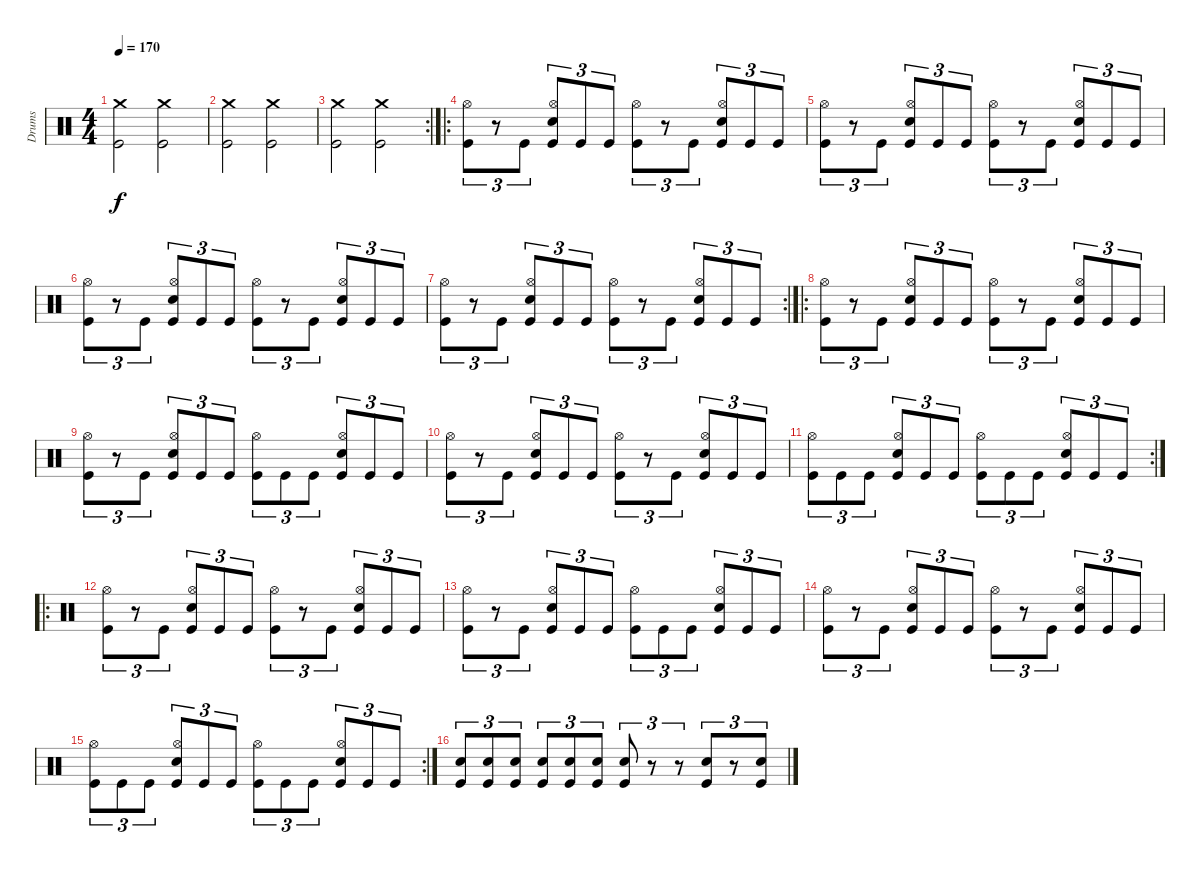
\track ("Drums" "Drums") {instrument percussion}
\staff {score}
\articulation defaults
\ts (4 4)
\tempo 170
\clef neutral
\ks c
("Crash medium (hit)" "Kick (hit)").2{dy f} ("Crash medium (hit)" "Kick (hit)").2 |
("Crash medium (hit)" "Kick (hit)").2 ("Crash medium (hit)" "Kick (hit)").2 |
\rc 2
("Crash medium (hit)" "Kick (hit)").2 ("Crash medium (hit)" "Kick (hit)").2 |
\ro
("Hi-Hat (open)" "Kick (hit)").8{tu (3 2)} r.8{tu (3 2)} "Kick (hit)".8{tu (3 2)} ("Hi-Hat (open)" "Snare (hit) 2" "Kick (hit)").8{tu (3 2)} "Kick (hit)".8{tu (3 2)} "Kick (hit)".8{tu (3 2)} ("Hi-Hat (open)" "Kick (hit)").8{tu (3 2)} r.8{tu (3 2)} "Kick (hit)".8{tu (3 2)} ("Hi-Hat (open)" "Snare (hit) 2" "Kick (hit)").8{tu (3 2)} "Kick (hit)".8{tu (3 2)} "Kick (hit)".8{tu (3 2)} |
("Hi-Hat (open)" "Kick (hit)").8{tu (3 2)} r.8{tu (3 2)} "Kick (hit)".8{tu (3 2)} ("Hi-Hat (open)" "Snare (hit) 2" "Kick (hit)").8{tu (3 2)} "Kick (hit)".8{tu (3 2)} "Kick (hit)".8{tu (3 2)} ("Hi-Hat (open)" "Kick (hit)").8{tu (3 2)} r.8{tu (3 2)} "Kick (hit)".8{tu (3 2)} ("Hi-Hat (open)" "Snare (hit) 2" "Kick (hit)").8{tu (3 2)} "Kick (hit)".8{tu (3 2)} "Kick (hit)".8{tu (3 2)} |
("Hi-Hat (open)" "Kick (hit)").8{tu (3 2)} r.8{tu (3 2)} "Kick (hit)".8{tu (3 2)} ("Hi-Hat (open)" "Snare (hit) 2" "Kick (hit)").8{tu (3 2)} "Kick (hit)".8{tu (3 2)} "Kick (hit)".8{tu (3 2)} ("Hi-Hat (open)" "Kick (hit)").8{tu (3 2)} r.8{tu (3 2)} "Kick (hit)".8{tu (3 2)} ("Hi-Hat (open)" "Snare (hit) 2" "Kick (hit)").8{tu (3 2)} "Kick (hit)".8{tu (3 2)} "Kick (hit)".8{tu (3 2)} |
\rc 2
("Hi-Hat (open)" "Kick (hit)").8{tu (3 2)} r.8{tu (3 2)} "Kick (hit)".8{tu (3 2)} ("Hi-Hat (open)" "Snare (hit) 2" "Kick (hit)").8{tu (3 2)} "Kick (hit)".8{tu (3 2)} "Kick (hit)".8{tu (3 2)} ("Hi-Hat (open)" "Kick (hit)").8{tu (3 2)} r.8{tu (3 2)} "Kick (hit)".8{tu (3 2)} ("Hi-Hat (open)" "Snare (hit) 2" "Kick (hit)").8{tu (3 2)} "Kick (hit)".8{tu (3 2)} "Kick (hit)".8{tu (3 2)} |
\ro
("Hi-Hat (open)" "Kick (hit)").8{tu (3 2)} r.8{tu (3 2)} "Kick (hit)".8{tu (3 2)} ("Hi-Hat (open)" "Snare (hit) 2" "Kick (hit)").8{tu (3 2)} "Kick (hit)".8{tu (3 2)} "Kick (hit)".8{tu (3 2)} ("Hi-Hat (open)" "Kick (hit)").8{tu (3 2)} r.8{tu (3 2)} "Kick (hit)".8{tu (3 2)} ("Hi-Hat (open)" "Snare (hit) 2" "Kick (hit)").8{tu (3 2)} "Kick (hit)".8{tu (3 2)} "Kick (hit)".8{tu (3 2)} |
("Hi-Hat (open)" "Kick (hit)").8{tu (3 2)} r.8{tu (3 2)} "Kick (hit)".8{tu (3 2)} ("Hi-Hat (open)" "Snare (hit) 2" "Kick (hit)").8{tu (3 2)} "Kick (hit)".8{tu (3 2)} "Kick (hit)".8{tu (3 2)} ("Hi-Hat (open)" "Kick (hit)").8{tu (3 2)} "Kick (hit)".8{tu (3 2)} "Kick (hit)".8{tu (3 2)} ("Hi-Hat (open)" "Snare (hit) 2" "Kick (hit)").8{tu (3 2)} "Kick (hit)".8{tu (3 2)} "Kick (hit)".8{tu (3 2)} |
("Hi-Hat (open)" "Kick (hit)").8{tu (3 2)} r.8{tu (3 2)} "Kick (hit)".8{tu (3 2)} ("Hi-Hat (open)" "Snare (hit) 2" "Kick (hit)").8{tu (3 2)} "Kick (hit)".8{tu (3 2)} "Kick (hit)".8{tu (3 2)} ("Hi-Hat (open)" "Kick (hit)").8{tu (3 2)} r.8{tu (3 2)} "Kick (hit)".8{tu (3 2)} ("Hi-Hat (open)" "Snare (hit) 2" "Kick (hit)").8{tu (3 2)} "Kick (hit)".8{tu (3 2)} "Kick (hit)".8{tu (3 2)} |
\rc 2
("Hi-Hat (open)" "Kick (hit)").8{tu (3 2)} "Kick (hit)".8{tu (3 2)} "Kick (hit)".8{tu (3 2)} ("Hi-Hat (open)" "Snare (hit) 2" "Kick (hit)").8{tu (3 2)} "Kick (hit)".8{tu (3 2)} "Kick (hit)".8{tu (3 2)} ("Hi-Hat (open)" "Kick (hit)").8{tu (3 2)} "Kick (hit)".8{tu (3 2)} "Kick (hit)".8{tu (3 2)} ("Hi-Hat (open)" "Snare (hit) 2" "Kick (hit)").8{tu (3 2)} "Kick (hit)".8{tu (3 2)} "Kick (hit)".8{tu (3 2)} |
\ro
("Hi-Hat (open)" "Kick (hit)").8{tu (3 2)} r.8{tu (3 2)} "Kick (hit)".8{tu (3 2)} ("Hi-Hat (open)" "Snare (hit) 2" "Kick (hit)").8{tu (3 2)} "Kick (hit)".8{tu (3 2)} "Kick (hit)".8{tu (3 2)} ("Hi-Hat (open)" "Kick (hit)").8{tu (3 2)} r.8{tu (3 2)} "Kick (hit)".8{tu (3 2)} ("Hi-Hat (open)" "Snare (hit) 2" "Kick (hit)").8{tu (3 2)} "Kick (hit)".8{tu (3 2)} "Kick (hit)".8{tu (3 2)} |
("Hi-Hat (open)" "Kick (hit)").8{tu (3 2)} r.8{tu (3 2)} "Kick (hit)".8{tu (3 2)} ("Hi-Hat (open)" "Snare (hit) 2" "Kick (hit)").8{tu (3 2)} "Kick (hit)".8{tu (3 2)} "Kick (hit)".8{tu (3 2)} ("Hi-Hat (open)" "Kick (hit)").8{tu (3 2)} "Kick (hit)".8{tu (3 2)} "Kick (hit)".8{tu (3 2)} ("Hi-Hat (open)" "Snare (hit) 2" "Kick (hit)").8{tu (3 2)} "Kick (hit)".8{tu (3 2)} "Kick (hit)".8{tu (3 2)} |
("Hi-Hat (open)" "Kick (hit)").8{tu (3 2)} r.8{tu (3 2)} "Kick (hit)".8{tu (3 2)} ("Hi-Hat (open)" "Snare (hit) 2" "Kick (hit)").8{tu (3 2)} "Kick (hit)".8{tu (3 2)} "Kick (hit)".8{tu (3 2)} ("Hi-Hat (open)" "Kick (hit)").8{tu (3 2)} r.8{tu (3 2)} "Kick (hit)".8{tu (3 2)} ("Hi-Hat (open)" "Snare (hit) 2" "Kick (hit)").8{tu (3 2)} "Kick (hit)".8{tu (3 2)} "Kick (hit)".8{tu (3 2)} |
\rc 2
("Hi-Hat (open)" "Kick (hit)").8{tu (3 2)} "Kick (hit)".8{tu (3 2)} "Kick (hit)".8{tu (3 2)} ("Hi-Hat (open)" "Snare (hit) 2" "Kick (hit)").8{tu (3 2)} "Kick (hit)".8{tu (3 2)} "Kick (hit)".8{tu (3 2)} ("Hi-Hat (open)" "Kick (hit)").8{tu (3 2)} "Kick (hit)".8{tu (3 2)} "Kick (hit)".8{tu (3 2)} ("Hi-Hat (open)" "Snare (hit) 2" "Kick (hit)").8{tu (3 2)} "Kick (hit)".8{tu (3 2)} "Kick (hit)".8{tu (3 2)} |
("Snare (hit) 2" "Kick (hit)").8{tu (3 2)} ("Snare (hit) 2" "Kick (hit)").8{tu (3 2)} ("Snare (hit) 2" "Kick (hit)").8{tu (3 2)} ("Snare (hit) 2" "Kick (hit)").8{tu (3 2)} ("Snare (hit) 2" "Kick (hit)").8{tu (3 2)} ("Snare (hit) 2" "Kick (hit)").8{tu (3 2)} ("Snare (hit) 2" "Kick (hit)").8{tu (3 2)} r.8{tu (3 2)} r.8{tu (3 2)} ("Snare (hit) 2" "Kick (hit)").8{tu (3 2)} r.8{tu (3 2)} ("Snare (hit) 2" "Kick (hit)").8{tu (3 2)}
